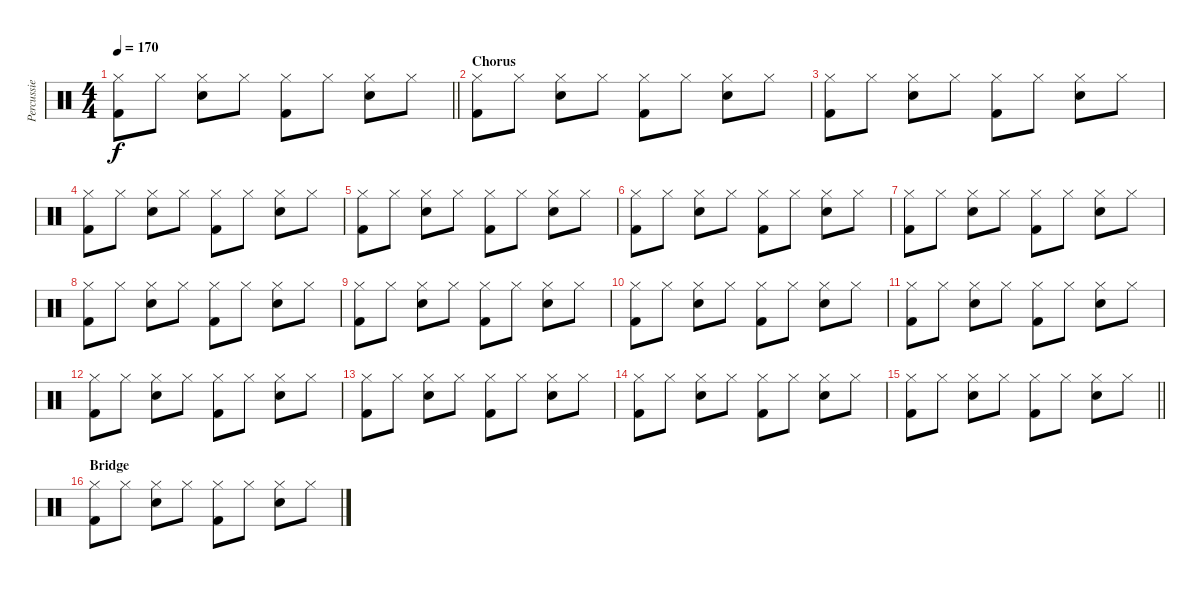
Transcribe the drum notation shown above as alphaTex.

\track ("Percussie" "Percussie") {instrument percussion}
\staff {score}
\articulation defaults
\ts (4 4)
\tempo 170
\clef neutral
\barLineRight lightlight
\ks c
("Hi-Hat (closed)" "Kick (hit) 2").8{dy f} "Hi-Hat (closed)".8 ("Hi-Hat (closed)" "Electric Snare (hit)").8 "Hi-Hat (closed)".8 ("Hi-Hat (closed)" "Kick (hit) 2").8 "Hi-Hat (closed)".8 ("Hi-Hat (closed)" "Electric Snare (hit)").8 "Hi-Hat (closed)".8 |
\section ("" "Chorus")
("Hi-Hat (closed)" "Kick (hit) 2").8 "Hi-Hat (closed)".8 ("Hi-Hat (closed)" "Electric Snare (hit)").8 "Hi-Hat (closed)".8 ("Hi-Hat (closed)" "Kick (hit) 2").8 "Hi-Hat (closed)".8 ("Hi-Hat (closed)" "Electric Snare (hit)").8 "Hi-Hat (closed)".8 |
("Hi-Hat (closed)" "Kick (hit) 2").8 "Hi-Hat (closed)".8 ("Hi-Hat (closed)" "Electric Snare (hit)").8 "Hi-Hat (closed)".8 ("Hi-Hat (closed)" "Kick (hit) 2").8 "Hi-Hat (closed)".8 ("Hi-Hat (closed)" "Electric Snare (hit)").8 "Hi-Hat (closed)".8 |
("Hi-Hat (closed)" "Kick (hit) 2").8 "Hi-Hat (closed)".8 ("Hi-Hat (closed)" "Electric Snare (hit)").8 "Hi-Hat (closed)".8 ("Hi-Hat (closed)" "Kick (hit) 2").8 "Hi-Hat (closed)".8 ("Hi-Hat (closed)" "Electric Snare (hit)").8 "Hi-Hat (closed)".8 |
("Hi-Hat (closed)" "Kick (hit) 2").8 "Hi-Hat (closed)".8 ("Hi-Hat (closed)" "Electric Snare (hit)").8 "Hi-Hat (closed)".8 ("Hi-Hat (closed)" "Kick (hit) 2").8 "Hi-Hat (closed)".8 ("Hi-Hat (closed)" "Electric Snare (hit)").8 "Hi-Hat (closed)".8 |
("Hi-Hat (closed)" "Kick (hit) 2").8 "Hi-Hat (closed)".8 ("Hi-Hat (closed)" "Electric Snare (hit)").8 "Hi-Hat (closed)".8 ("Hi-Hat (closed)" "Kick (hit) 2").8 "Hi-Hat (closed)".8 ("Hi-Hat (closed)" "Electric Snare (hit)").8 "Hi-Hat (closed)".8 |
("Hi-Hat (closed)" "Kick (hit) 2").8 "Hi-Hat (closed)".8 ("Hi-Hat (closed)" "Electric Snare (hit)").8 "Hi-Hat (closed)".8 ("Hi-Hat (closed)" "Kick (hit) 2").8 "Hi-Hat (closed)".8 ("Hi-Hat (closed)" "Electric Snare (hit)").8 "Hi-Hat (closed)".8 |
("Hi-Hat (closed)" "Kick (hit) 2").8 "Hi-Hat (closed)".8 ("Hi-Hat (closed)" "Electric Snare (hit)").8 "Hi-Hat (closed)".8 ("Hi-Hat (closed)" "Kick (hit) 2").8 "Hi-Hat (closed)".8 ("Hi-Hat (closed)" "Electric Snare (hit)").8 "Hi-Hat (closed)".8 |
("Hi-Hat (closed)" "Kick (hit) 2").8 "Hi-Hat (closed)".8 ("Hi-Hat (closed)" "Electric Snare (hit)").8 "Hi-Hat (closed)".8 ("Hi-Hat (closed)" "Kick (hit) 2").8 "Hi-Hat (closed)".8 ("Hi-Hat (closed)" "Electric Snare (hit)").8 "Hi-Hat (closed)".8 |
("Hi-Hat (closed)" "Kick (hit) 2").8 "Hi-Hat (closed)".8 ("Hi-Hat (closed)" "Electric Snare (hit)").8 "Hi-Hat (closed)".8 ("Hi-Hat (closed)" "Kick (hit) 2").8 "Hi-Hat (closed)".8 ("Hi-Hat (closed)" "Electric Snare (hit)").8 "Hi-Hat (closed)".8 |
("Hi-Hat (closed)" "Kick (hit) 2").8 "Hi-Hat (closed)".8 ("Hi-Hat (closed)" "Electric Snare (hit)").8 "Hi-Hat (closed)".8 ("Hi-Hat (closed)" "Kick (hit) 2").8 "Hi-Hat (closed)".8 ("Hi-Hat (closed)" "Electric Snare (hit)").8 "Hi-Hat (closed)".8 |
("Hi-Hat (closed)" "Kick (hit) 2").8 "Hi-Hat (closed)".8 ("Hi-Hat (closed)" "Electric Snare (hit)").8 "Hi-Hat (closed)".8 ("Hi-Hat (closed)" "Kick (hit) 2").8 "Hi-Hat (closed)".8 ("Hi-Hat (closed)" "Electric Snare (hit)").8 "Hi-Hat (closed)".8 |
("Hi-Hat (closed)" "Kick (hit) 2").8 "Hi-Hat (closed)".8 ("Hi-Hat (closed)" "Electric Snare (hit)").8 "Hi-Hat (closed)".8 ("Hi-Hat (closed)" "Kick (hit) 2").8 "Hi-Hat (closed)".8 ("Hi-Hat (closed)" "Electric Snare (hit)").8 "Hi-Hat (closed)".8 |
("Hi-Hat (closed)" "Kick (hit) 2").8 "Hi-Hat (closed)".8 ("Hi-Hat (closed)" "Electric Snare (hit)").8 "Hi-Hat (closed)".8 ("Hi-Hat (closed)" "Kick (hit) 2").8 "Hi-Hat (closed)".8 ("Hi-Hat (closed)" "Electric Snare (hit)").8 "Hi-Hat (closed)".8 |
\barLineRight lightlight
("Hi-Hat (closed)" "Kick (hit) 2").8 "Hi-Hat (closed)".8 ("Hi-Hat (closed)" "Electric Snare (hit)").8 "Hi-Hat (closed)".8 ("Hi-Hat (closed)" "Kick (hit) 2").8 "Hi-Hat (closed)".8 ("Hi-Hat (closed)" "Electric Snare (hit)").8 "Hi-Hat (closed)".8 |
\section ("" "Bridge")
("Hi-Hat (closed)" "Kick (hit) 2").8 "Hi-Hat (closed)".8 ("Hi-Hat (closed)" "Electric Snare (hit)").8 "Hi-Hat (closed)".8 ("Hi-Hat (closed)" "Kick (hit) 2").8 "Hi-Hat (closed)".8 ("Hi-Hat (closed)" "Electric Snare (hit)").8 "Hi-Hat (closed)".8
